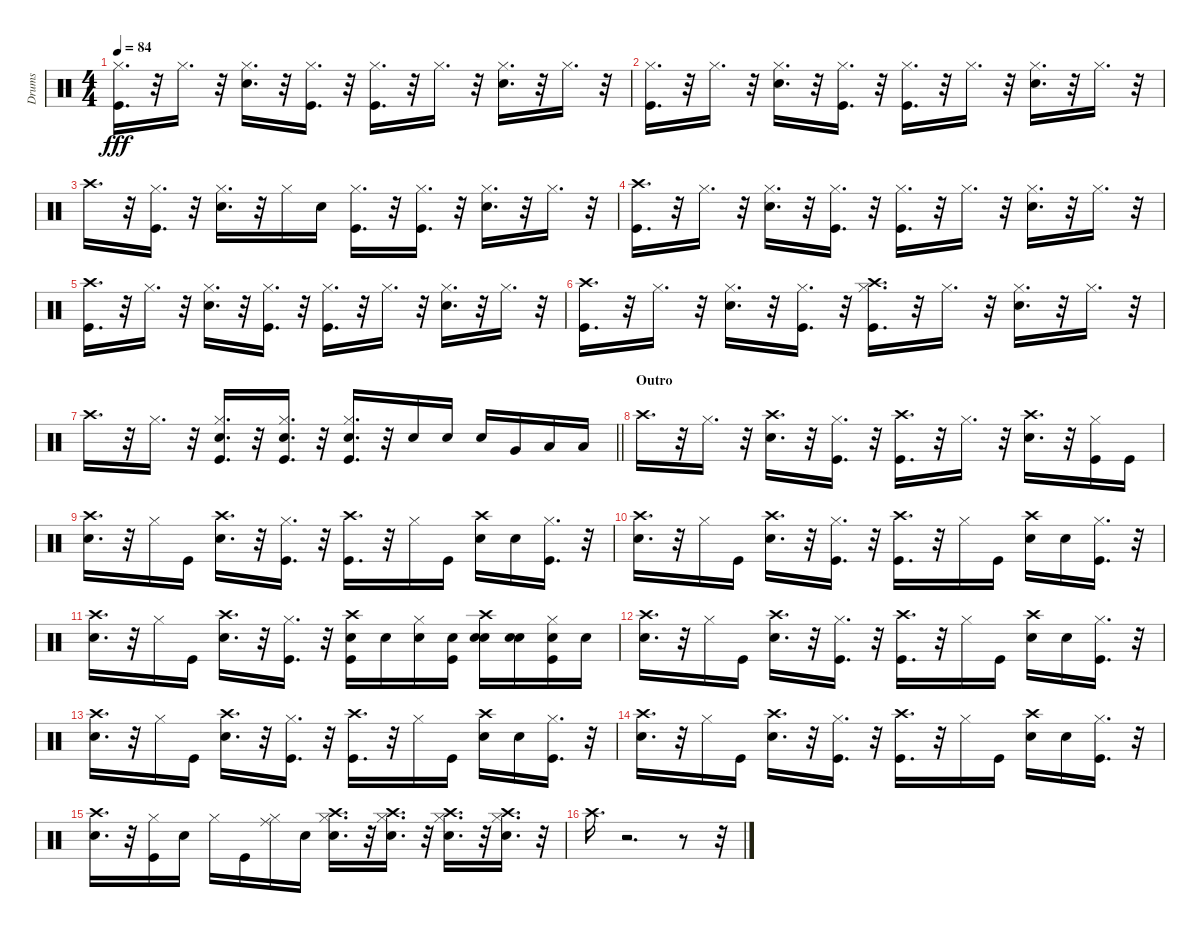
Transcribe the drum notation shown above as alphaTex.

\track ("Drums" "Drums") {instrument percussion}
\staff {score}
\articulation defaults
\ts (4 4)
\tempo 84
\clef neutral
\ks c
("Kick (hit)" "Hi-Hat (closed)").16{d dy fff} r.32 "Hi-Hat (closed)".16{d} r.32 ("Snare (hit) 2" "Hi-Hat (closed)").16{d} r.32 ("Kick (hit)" "Hi-Hat (closed)").16{d} r.32 ("Kick (hit)" "Hi-Hat (closed)").16{d} r.32 "Hi-Hat (closed)".16{d} r.32 ("Snare (hit) 2" "Hi-Hat (closed)").16{d} r.32 "Hi-Hat (closed)".16{d} r.32 |
("Kick (hit)" "Hi-Hat (closed)").16{d} r.32 "Hi-Hat (closed)".16{d} r.32 ("Snare (hit) 2" "Hi-Hat (closed)").16{d} r.32 ("Kick (hit)" "Hi-Hat (closed)").16{d} r.32 ("Kick (hit)" "Hi-Hat (closed)").16{d} r.32 "Hi-Hat (closed)".16{d} r.32 ("Snare (hit) 2" "Hi-Hat (closed)").16{d} r.32 "Hi-Hat (closed)".16{d} r.32 |
"Crash high (hit)".16{d} r.32 ("Hi-Hat (closed)" "Kick (hit)").16{d} r.32 ("Hi-Hat (closed)" "Snare (hit) 2").16{d} r.32 "Hi-Hat (closed)".16 "Snare (hit) 2".16 ("Hi-Hat (closed)" "Kick (hit)").16{d} r.32 ("Hi-Hat (closed)" "Kick (hit)").16{d} r.32 ("Hi-Hat (closed)" "Snare (hit) 2").16{d} r.32 "Hi-Hat (closed)".16{d} r.32 |
("Crash high (hit)" "Kick (hit)").16{d} r.32 "Hi-Hat (closed)".16{d} r.32 ("Snare (hit) 2" "Hi-Hat (closed)").16{d} r.32 ("Kick (hit)" "Hi-Hat (closed)").16{d} r.32 ("Kick (hit)" "Hi-Hat (closed)").16{d} r.32 "Hi-Hat (closed)".16{d} r.32 ("Hi-Hat (closed)" "Snare (hit) 2").16{d} r.32 "Hi-Hat (closed)".16{d} r.32 |
("Kick (hit)" "Crash high (hit)").16{d} r.32 "Hi-Hat (closed)".16{d} r.32 ("Snare (hit) 2" "Hi-Hat (closed)").16{d} r.32 ("Kick (hit)" "Hi-Hat (closed)").16{d} r.32 ("Kick (hit)" "Hi-Hat (closed)").16{d} r.32 "Hi-Hat (closed)".16{d} r.32 ("Snare (hit) 2" "Hi-Hat (closed)").16{d} r.32 "Hi-Hat (closed)".16{d} r.32 |
("Kick (hit)" "Crash high (hit)").16{d} r.32 "Hi-Hat (closed)".16{d} r.32 ("Snare (hit) 2" "Hi-Hat (closed)").16{d} r.32 ("Kick (hit)" "Hi-Hat (closed)").16{d} r.32 ("Kick (hit)" "Hi-Hat (closed)" "Crash high (hit)").16{d} r.32 "Hi-Hat (closed)".16{d} r.32 ("Snare (hit) 2" "Hi-Hat (closed)").16{d} r.32 "Hi-Hat (closed)".16{d} r.32 |
\barLineRight lightlight "Crash high (hit)".16{d}
r.32 "Hi-Hat (closed)".16{d} r.32 ("Kick (hit)" "Hi-Hat (closed)" "Snare (hit) 2").16{d} r.32 ("Kick (hit)" "Hi-Hat (closed)" "Snare (hit) 2").16{d} r.32 ("Kick (hit)" "Hi-Hat (closed)" "Snare (hit) 2").16{d} r.32 "Snare (hit) 2".16 "Snare (hit) 2".16 "Snare (hit) 2".16 "Very Low Tom (hit)".16 "Low Floor Tom (hit)".16 "Low Floor Tom (hit)".16 |
\section ("" "Outro")
"Crash high (hit)".16{d} r.32 "Hi-Hat (closed)".16{d} r.32 ("Crash high (hit)" "Snare (hit) 2").16{d} r.32 ("Kick (hit)" "Hi-Hat (closed)").16{d} r.32 ("Crash high (hit)" "Kick (hit)").16{d} r.32 "Hi-Hat (closed)".16{d} r.32 ("Crash high (hit)" "Snare (hit) 2").16{d} r.32 ("Hi-Hat (closed)" "Kick (hit)").16 "Kick (hit)".16 |
("Snare (hit) 2" "Crash high (hit)").16{d} r.32 "Hi-Hat (closed)".16 "Kick (hit)".16 ("Crash high (hit)" "Snare (hit) 2").16{d} r.32 ("Hi-Hat (closed)" "Kick (hit)").16{d} r.32 ("Crash high (hit)" "Kick (hit)").16{d} r.32 "Hi-Hat (closed)".16 "Kick (hit)".16 ("Crash high (hit)" "Snare (hit) 2").16 "Snare (hit) 2".16 ("Hi-Hat (closed)" "Kick (hit)").16{d} r.32 |
("Snare (hit) 2" "Crash high (hit)").16{d} r.32 "Hi-Hat (closed)".16 "Kick (hit)".16 ("Crash high (hit)" "Snare (hit) 2").16{d} r.32 ("Hi-Hat (closed)" "Kick (hit)").16{d} r.32 ("Crash high (hit)" "Kick (hit)").16{d} r.32 "Hi-Hat (closed)".16 "Kick (hit)".16 ("Crash high (hit)" "Snare (hit) 2").16 "Snare (hit) 2".16 ("Hi-Hat (closed)" "Kick (hit)").16{d} r.32 |
("Snare (hit) 2" "Crash high (hit)").16{d} r.32 "Hi-Hat (closed)".16 "Kick (hit)".16 ("Crash high (hit)" "Snare (hit) 2").16{d} r.32 ("Hi-Hat (closed)" "Kick (hit)").16{d} r.32 ("Snare (hit) 2" "Crash high (hit)" "Kick (hit)").16 "Snare (hit) 2".16 ("Snare (hit) 2" "Hi-Hat (closed)").16 ("Snare (hit) 2" "Kick (hit)").16 ("Snare (hit) 2" "Crash high (hit)" "Snare (hit) 2").16 ("Snare (hit) 2" "Snare (hit) 2").16 ("Snare (hit) 2" "Hi-Hat (closed)" "Kick (hit)").16 "Snare (hit) 2".16 |
("Snare (hit) 2" "Crash high (hit)").16{d} r.32 "Hi-Hat (closed)".16 "Kick (hit)".16 ("Crash high (hit)" "Snare (hit) 2").16{d} r.32 ("Hi-Hat (closed)" "Kick (hit)").16{d} r.32 ("Crash high (hit)" "Kick (hit)").16{d} r.32 "Hi-Hat (closed)".16 "Kick (hit)".16 ("Crash high (hit)" "Snare (hit) 2").16 "Snare (hit) 2".16 ("Hi-Hat (closed)" "Kick (hit)").16{d} r.32 |
("Snare (hit) 2" "Crash high (hit)").16{d} r.32 "Hi-Hat (closed)".16 "Kick (hit)".16 ("Crash high (hit)" "Snare (hit) 2").16{d} r.32 ("Hi-Hat (closed)" "Kick (hit)").16{d} r.32 ("Crash high (hit)" "Kick (hit)").16{d} r.32 "Hi-Hat (closed)".16 "Kick (hit)".16 ("Crash high (hit)" "Snare (hit) 2").16 "Snare (hit) 2".16 ("Hi-Hat (closed)" "Kick (hit)").16{d} r.32 |
("Snare (hit) 2" "Crash high (hit)").16{d} r.32 "Hi-Hat (closed)".16 "Kick (hit)".16 ("Crash high (hit)" "Snare (hit) 2").16{d} r.32 ("Hi-Hat (closed)" "Kick (hit)").16{d} r.32 ("Crash high (hit)" "Kick (hit)").16{d} r.32 "Hi-Hat (closed)".16 "Kick (hit)".16 ("Crash high (hit)" "Snare (hit) 2").16 "Snare (hit) 2".16 ("Hi-Hat (closed)" "Kick (hit)").16{d} r.32 |
("Crash high (hit)" "Snare (hit) 2").16{d} r.32 ("Kick (hit)" "Hi-Hat (closed)").16 "Snare (hit) 2".16 "Hi-Hat (closed)".16 "Kick (hit)".16 ("Hi-Hat (closed)" "Ride (middle)").16 "Snare (hit) 2".16 ("Crash high (hit)" "Snare (hit) 2" "Hi-Hat (closed)").16{d} r.32 ("Crash high (hit)" "Snare (hit) 2" "Hi-Hat (closed)").16{d} r.32 ("Crash high (hit)" "Snare (hit) 2" "Hi-Hat (closed)").16{d} r.32 ("Crash high (hit)" "Snare (hit) 2" "Hi-Hat (closed)").16{d} r.32 |
"Crash high (hit)".16{d} r.2{d} r.8 r.32
